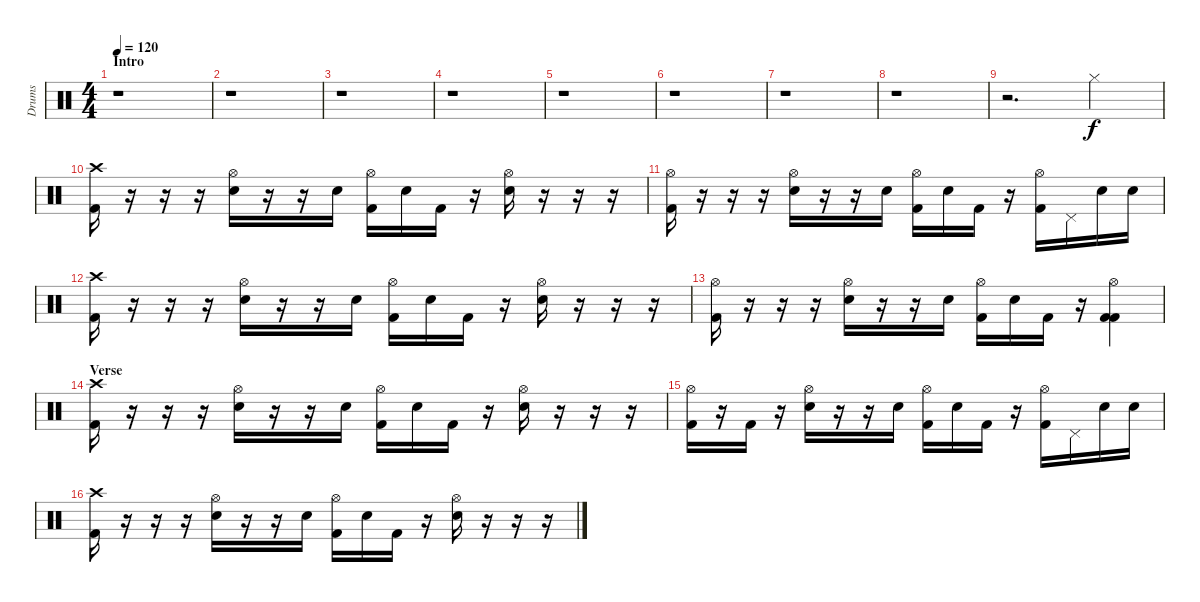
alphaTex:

\track ("Drums" "Drums") {instrument percussion}
\staff {score}
\articulation defaults
\ts (4 4)
\section ("" "Intro")
\tempo 120
\clef neutral
\ks c
r.1{dy f} |
r.1 |
r.1 |
r.1 |
r.1 |
r.1 |
r.1 |
r.1 |
r.2{d} "Hi-Hat (closed)".4 |
("Crash high (hit)" "Kick (hit) 2").16 r.16 r.16 r.16 ("Hi-Hat (open)" "Snare (hit) 2").16 r.16 r.16 "Snare (hit) 2".16 ("Hi-Hat (open)" "Kick (hit) 2").16 "Snare (hit) 2".16 "Kick (hit) 2".16 r.16 ("Hi-Hat (open)" "Snare (hit) 2").16 r.16 r.16 r.16 |
("Hi-Hat (open)" "Kick (hit) 2").16 r.16 r.16 r.16 ("Hi-Hat (open)" "Snare (hit) 2").16 r.16 r.16 "Snare (hit) 2".16 ("Hi-Hat (open)" "Kick (hit) 2").16 "Snare (hit) 2".16 "Kick (hit) 2".16 r.16 ("Hi-Hat (open)" "Kick (hit) 2").16 "Pedal Hi-Hat (hit)".16 "Snare (hit) 2".16 "Snare (hit) 2".16 |
("Crash high (hit)" "Kick (hit) 2").16 r.16 r.16 r.16 ("Hi-Hat (open)" "Snare (hit) 2").16 r.16 r.16 "Snare (hit) 2".16 ("Hi-Hat (open)" "Kick (hit) 2").16 "Snare (hit) 2".16 "Kick (hit) 2".16 r.16 ("Hi-Hat (open)" "Snare (hit) 2").16 r.16 r.16 r.16 |
("Hi-Hat (open)" "Kick (hit) 2").16 r.16 r.16 r.16 ("Hi-Hat (open)" "Snare (hit) 2").16 r.16 r.16 "Snare (hit) 2".16 ("Hi-Hat (open)" "Kick (hit) 2").16 "Snare (hit) 2".16 "Kick (hit) 2".16 r.16 ("Hi-Hat (open)" "Kick (hit) 2" "Kick (hit) 2").4 |
\section ("" "Verse")
("Crash high (hit)" "Kick (hit) 2").16 r.16 r.16 r.16 ("Hi-Hat (open)" "Snare (hit) 2").16 r.16 r.16 "Snare (hit) 2".16 ("Hi-Hat (open)" "Kick (hit) 2").16 "Snare (hit) 2".16 "Kick (hit) 2".16 r.16 ("Hi-Hat (open)" "Snare (hit) 2").16 r.16 r.16 r.16 |
("Hi-Hat (open)" "Kick (hit) 2").16 r.16 "Kick (hit) 2".16 r.16 ("Hi-Hat (open)" "Snare (hit) 2").16 r.16 r.16 "Snare (hit) 2".16 ("Hi-Hat (open)" "Kick (hit) 2").16 "Snare (hit) 2".16 "Kick (hit) 2".16 r.16 ("Hi-Hat (open)" "Kick (hit) 2").16 "Pedal Hi-Hat (hit)".16 "Snare (hit) 2".16 "Snare (hit) 2".16 |
("Crash high (hit)" "Kick (hit) 2").16 r.16 r.16 r.16 ("Hi-Hat (open)" "Snare (hit) 2").16 r.16 r.16 "Snare (hit) 2".16 ("Hi-Hat (open)" "Kick (hit) 2").16 "Snare (hit) 2".16 "Kick (hit) 2".16 r.16 ("Hi-Hat (open)" "Snare (hit) 2").16 r.16 r.16 r.16
